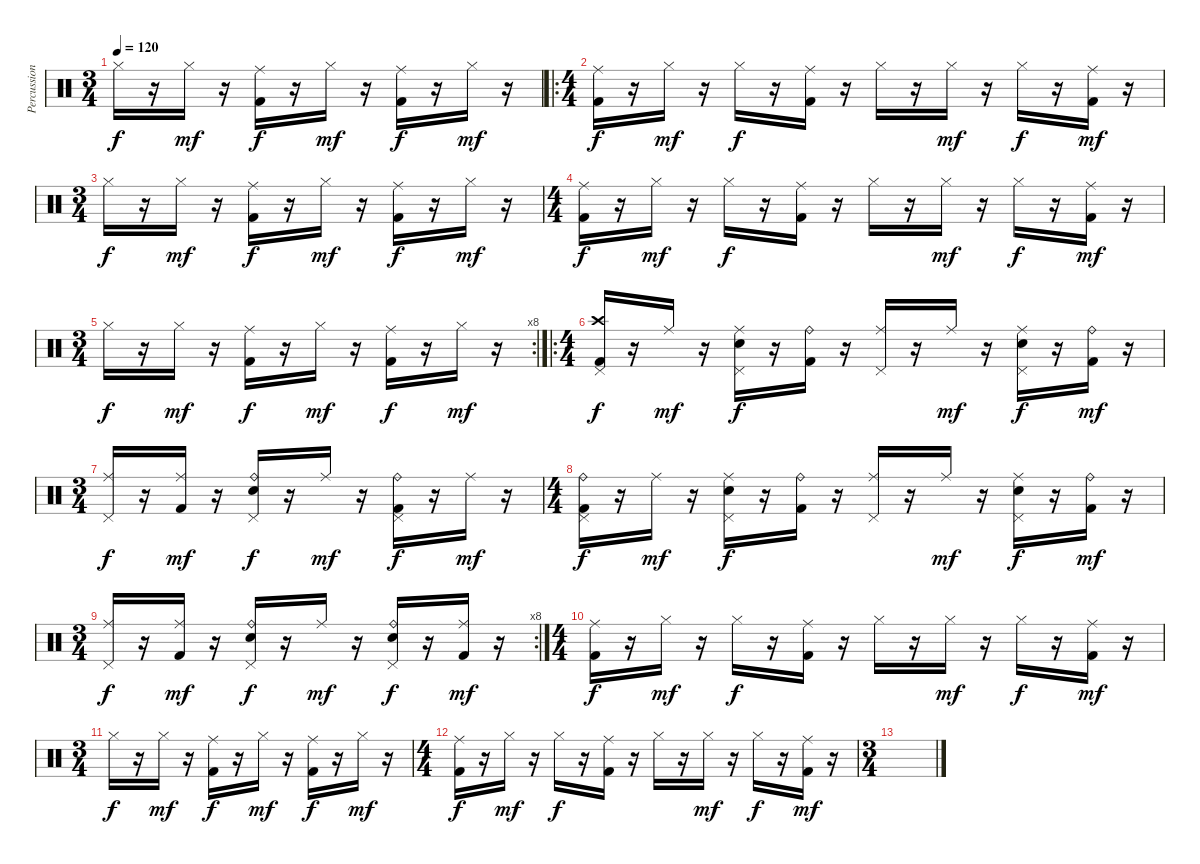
\track ("Percussion" "Percussion") {instrument percussion}
\staff {score}
\articulation defaults
\ts (3 4)
\tempo 120
\clef neutral
\ks c "Hi-Hat (closed)".16{dy f}
r.16 "Hi-Hat (closed)".16{dy mf} r.16 ("Ride (middle)" "Kick (hit) 2").16{dy f} r.16 "Hi-Hat (closed)".16{dy mf} r.16 ("Ride (middle)" "Kick (hit) 2").16{dy f} r.16 "Hi-Hat (closed)".16{dy mf} r.16 |
\ro
\ts (4 4)
("Ride (middle)" "Kick (hit) 2").16{dy f} r.16 "Hi-Hat (closed)".16{dy mf} r.16 "Hi-Hat (closed)".16{dy f} r.16 ("Ride (middle)" "Kick (hit) 2").16 r.16 "Hi-Hat (closed)".16 r.16 "Hi-Hat (closed)".16{dy mf} r.16 "Hi-Hat (closed)".16{dy f} r.16 ("Ride (middle)" "Kick (hit) 2").16{dy mf} r.16 |
\ts (3 4)
"Hi-Hat (closed)".16{dy f} r.16 "Hi-Hat (closed)".16{dy mf} r.16 ("Ride (middle)" "Kick (hit) 2").16{dy f} r.16 "Hi-Hat (closed)".16{dy mf} r.16 ("Ride (middle)" "Kick (hit) 2").16{dy f} r.16 "Hi-Hat (closed)".16{dy mf} r.16 |
\ts (4 4)
("Ride (middle)" "Kick (hit) 2").16{dy f} r.16 "Hi-Hat (closed)".16{dy mf} r.16 "Hi-Hat (closed)".16{dy f} r.16 ("Ride (middle)" "Kick (hit) 2").16 r.16 "Hi-Hat (closed)".16 r.16 "Hi-Hat (closed)".16{dy mf} r.16 "Hi-Hat (closed)".16{dy f} r.16 ("Ride (middle)" "Kick (hit) 2").16{dy mf} r.16 |
\rc 8
\ts (3 4)
"Hi-Hat (closed)".16{dy f} r.16 "Hi-Hat (closed)".16{dy mf} r.16 ("Ride (middle)" "Kick (hit) 2").16{dy f} r.16 "Hi-Hat (closed)".16{dy mf} r.16 ("Ride (middle)" "Kick (hit) 2").16{dy f} r.16 "Hi-Hat (closed)".16{dy mf} r.16 |
\ro
\ts (4 4)
("Crash high (hit)" "Pedal Hi-Hat (hit)" "Kick (hit) 2").16{dy f} r.16 "Ride (middle)".16{dy mf} r.16 ("Ride (middle)" "Electric Snare (hit)" "Pedal Hi-Hat (hit)").16{dy f} r.16 ("Ride (bell)" "Kick (hit) 2").16 r.16 ("Ride (middle)" "Pedal Hi-Hat (hit)").16 r.16 "Ride (middle)".16{dy mf} r.16 ("Ride (middle)" "Electric Snare (hit)" "Pedal Hi-Hat (hit)").16{dy f} r.16 ("Ride (bell)" "Kick (hit) 2").16{dy mf} r.16 |
\ts (3 4)
("Ride (middle)" "Pedal Hi-Hat (hit)").16{dy f} r.16 ("Ride (middle)" "Kick (hit) 2").16{dy mf} r.16 ("Ride (bell)" "Electric Snare (hit)" "Pedal Hi-Hat (hit)").16{dy f} r.16 "Ride (middle)".16{dy mf} r.16 ("Ride (bell)" "Pedal Hi-Hat (hit)" "Kick (hit) 2").16{dy f} r.16 "Ride (middle)".16{dy mf} r.16 |
\ts (4 4)
("Ride (bell)" "Pedal Hi-Hat (hit)" "Kick (hit) 2").16{dy f} r.16 "Ride (middle)".16{dy mf} r.16 ("Ride (middle)" "Electric Snare (hit)" "Pedal Hi-Hat (hit)").16{dy f} r.16 ("Ride (bell)" "Kick (hit) 2").16 r.16 ("Ride (middle)" "Pedal Hi-Hat (hit)").16 r.16 "Ride (middle)".16{dy mf} r.16 ("Ride (middle)" "Electric Snare (hit)" "Pedal Hi-Hat (hit)").16{dy f} r.16 ("Ride (bell)" "Kick (hit) 2").16{dy mf} r.16 |
\rc 8
\ts (3 4)
("Ride (middle)" "Pedal Hi-Hat (hit)").16{dy f} r.16 ("Ride (middle)" "Kick (hit) 2").16{dy mf} r.16 ("Ride (bell)" "Electric Snare (hit)" "Pedal Hi-Hat (hit)").16{dy f} r.16 "Ride (middle)".16{dy mf} r.16 ("Ride (bell)" "Electric Snare (hit)" "Pedal Hi-Hat (hit)").16{dy f} r.16 ("Ride (middle)" "Kick (hit) 2").16{dy mf} r.16 |
\ts (4 4)
("Ride (middle)" "Kick (hit) 2").16{dy f} r.16 "Hi-Hat (closed)".16{dy mf} r.16 "Hi-Hat (closed)".16{dy f} r.16 ("Ride (middle)" "Kick (hit) 2").16 r.16 "Hi-Hat (closed)".16 r.16 "Hi-Hat (closed)".16{dy mf} r.16 "Hi-Hat (closed)".16{dy f} r.16 ("Ride (middle)" "Kick (hit) 2").16{dy mf} r.16 |
\ts (3 4)
"Hi-Hat (closed)".16{dy f} r.16 "Hi-Hat (closed)".16{dy mf} r.16 ("Ride (middle)" "Kick (hit) 2").16{dy f} r.16 "Hi-Hat (closed)".16{dy mf} r.16 ("Ride (middle)" "Kick (hit) 2").16{dy f} r.16 "Hi-Hat (closed)".16{dy mf} r.16 |
\ts (4 4)
("Ride (middle)" "Kick (hit) 2").16{dy f} r.16 "Hi-Hat (closed)".16{dy mf} r.16 "Hi-Hat (closed)".16{dy f} r.16 ("Ride (middle)" "Kick (hit) 2").16 r.16 "Hi-Hat (closed)".16 r.16 "Hi-Hat (closed)".16{dy mf} r.16 "Hi-Hat (closed)".16{dy f} r.16 ("Ride (middle)" "Kick (hit) 2").16{dy mf} r.16 |
\ts (3 4)
